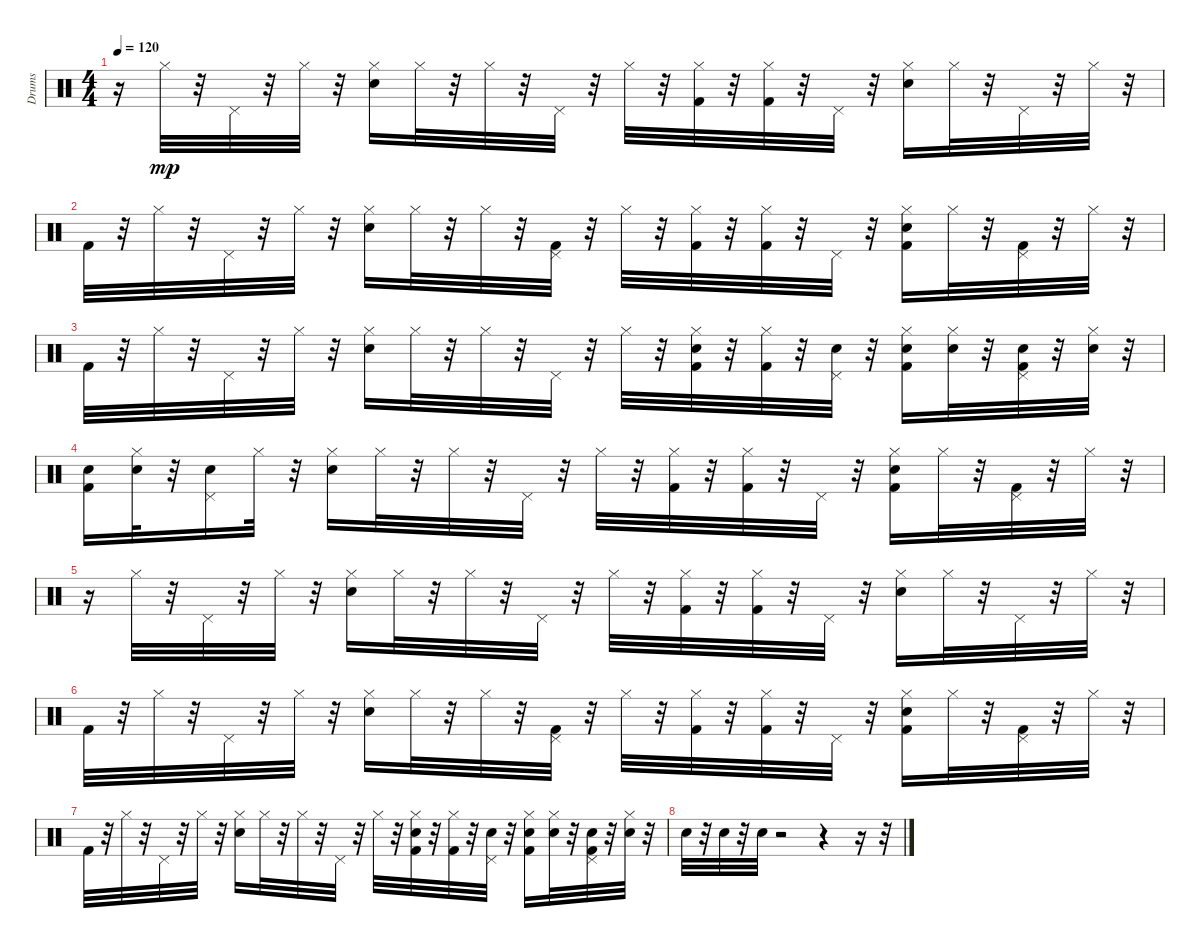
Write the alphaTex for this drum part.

\track ("Drums" "Drums") {instrument percussion}
\staff {score}
\articulation defaults
\ts (4 4)
\tempo 120
\clef neutral
\ks c
r.16{dy mp} "Hi-Hat (closed)".32 r.32 "Pedal Hi-Hat (hit)".32 r.32 "Hi-Hat (closed)".32 r.32 ("Hi-Hat (closed)" "Snare (hit) 2").16 "Hi-Hat (closed)".32 r.32 "Hi-Hat (closed)".32 r.32 "Pedal Hi-Hat (hit)".32 r.32 "Hi-Hat (closed)".32 r.32 ("Hi-Hat (closed)" "Kick (hit) 2").32 r.32 ("Hi-Hat (closed)" "Kick (hit) 2").32 r.32 "Pedal Hi-Hat (hit)".32 r.32 ("Hi-Hat (closed)" "Snare (hit) 2").16 "Hi-Hat (closed)".32 r.32 "Pedal Hi-Hat (hit)".32 r.32 "Hi-Hat (closed)".32 r.32 |
"Kick (hit) 2".32 r.32 "Hi-Hat (closed)".32 r.32 "Pedal Hi-Hat (hit)".32 r.32 "Hi-Hat (closed)".32 r.32 ("Hi-Hat (closed)" "Snare (hit) 2").16 "Hi-Hat (closed)".32 r.32 "Hi-Hat (closed)".32 r.32 ("Pedal Hi-Hat (hit)" "Kick (hit) 2").32 r.32 "Hi-Hat (closed)".32 r.32 ("Hi-Hat (closed)" "Kick (hit) 2").32 r.32 ("Hi-Hat (closed)" "Kick (hit) 2").32 r.32 "Pedal Hi-Hat (hit)".32 r.32 ("Hi-Hat (closed)" "Kick (hit) 2" "Snare (hit) 2").16 "Hi-Hat (closed)".32 r.32 ("Kick (hit) 2" "Pedal Hi-Hat (hit)").32 r.32 "Hi-Hat (closed)".32 r.32 |
"Kick (hit) 2".32 r.32 "Hi-Hat (closed)".32 r.32 "Pedal Hi-Hat (hit)".32 r.32 "Hi-Hat (closed)".32 r.32 ("Hi-Hat (closed)" "Snare (hit) 2").16 "Hi-Hat (closed)".32 r.32 "Hi-Hat (closed)".32 r.32 "Pedal Hi-Hat (hit)".32 r.32 "Hi-Hat (closed)".32 r.32 ("Hi-Hat (closed)" "Kick (hit) 2" "Hand Clap (hit)").32 r.32 ("Hi-Hat (closed)" "Kick (hit) 2").32 r.32 ("Pedal Hi-Hat (hit)" "Hand Clap (hit)").32 r.32 ("Hi-Hat (closed)" "Kick (hit) 2" "Snare (hit) 2").16 ("Hi-Hat (closed)" "Hand Clap (hit)").32 r.32 ("Pedal Hi-Hat (hit)" "Kick (hit) 2" "Hand Clap (hit)").32 r.32 ("Hi-Hat (closed)" "Hand Clap (hit)").32 r.32 |
("Kick (hit) 2" "Hand Clap (hit)").16 ("Hi-Hat (closed)" "Hand Clap (hit)").32 r.32 ("Pedal Hi-Hat (hit)" "Hand Clap (hit)").16 "Hi-Hat (closed)".32 r.32 ("Hi-Hat (closed)" "Snare (hit) 2").16 "Hi-Hat (closed)".32 r.32 "Hi-Hat (closed)".32 r.32 "Pedal Hi-Hat (hit)".32 r.32 "Hi-Hat (closed)".32 r.32 ("Hi-Hat (closed)" "Kick (hit) 2").32 r.32 ("Hi-Hat (closed)" "Kick (hit) 2").32 r.32 "Pedal Hi-Hat (hit)".32 r.32 ("Hi-Hat (closed)" "Snare (hit) 2" "Kick (hit) 2").16 "Hi-Hat (closed)".32 r.32 ("Pedal Hi-Hat (hit)" "Kick (hit) 2").32 r.32 "Hi-Hat (closed)".32 r.32 |
r.16 "Hi-Hat (closed)".32 r.32 "Pedal Hi-Hat (hit)".32 r.32 "Hi-Hat (closed)".32 r.32 ("Hi-Hat (closed)" "Snare (hit) 2").16 "Hi-Hat (closed)".32 r.32 "Hi-Hat (closed)".32 r.32 "Pedal Hi-Hat (hit)".32 r.32 "Hi-Hat (closed)".32 r.32 ("Hi-Hat (closed)" "Kick (hit) 2").32 r.32 ("Hi-Hat (closed)" "Kick (hit) 2").32 r.32 "Pedal Hi-Hat (hit)".32 r.32 ("Hi-Hat (closed)" "Snare (hit) 2").16 "Hi-Hat (closed)".32 r.32 "Pedal Hi-Hat (hit)".32 r.32 "Hi-Hat (closed)".32 r.32 |
"Kick (hit) 2".32 r.32 "Hi-Hat (closed)".32 r.32 "Pedal Hi-Hat (hit)".32 r.32 "Hi-Hat (closed)".32 r.32 ("Hi-Hat (closed)" "Snare (hit) 2").16 "Hi-Hat (closed)".32 r.32 "Hi-Hat (closed)".32 r.32 ("Pedal Hi-Hat (hit)" "Kick (hit) 2").32 r.32 "Hi-Hat (closed)".32 r.32 ("Hi-Hat (closed)" "Kick (hit) 2").32 r.32 ("Hi-Hat (closed)" "Kick (hit) 2").32 r.32 "Pedal Hi-Hat (hit)".32 r.32 ("Hi-Hat (closed)" "Kick (hit) 2" "Snare (hit) 2").16 "Hi-Hat (closed)".32 r.32 ("Kick (hit) 2" "Pedal Hi-Hat (hit)").32 r.32 "Hi-Hat (closed)".32 r.32 |
"Kick (hit) 2".32 r.32 "Hi-Hat (closed)".32 r.32 "Pedal Hi-Hat (hit)".32 r.32 "Hi-Hat (closed)".32 r.32 ("Hi-Hat (closed)" "Snare (hit) 2").16 "Hi-Hat (closed)".32 r.32 "Hi-Hat (closed)".32 r.32 "Pedal Hi-Hat (hit)".32 r.32 "Hi-Hat (closed)".32 r.32 ("Hi-Hat (closed)" "Kick (hit) 2" "Hand Clap (hit)").32 r.32 ("Hi-Hat (closed)" "Kick (hit) 2").32 r.32 ("Pedal Hi-Hat (hit)" "Hand Clap (hit)").32 r.32 ("Hi-Hat (closed)" "Kick (hit) 2" "Snare (hit) 2").16 ("Hi-Hat (closed)" "Hand Clap (hit)").32 r.32 ("Pedal Hi-Hat (hit)" "Kick (hit) 2" "Hand Clap (hit)").32 r.32 ("Hi-Hat (closed)" "Hand Clap (hit)").32 r.32 |
"Hand Clap (hit)".32 r.32 "Hand Clap (hit)".32 r.32 "Hand Clap (hit)".32 r.2 r.4 r.16 r.32
